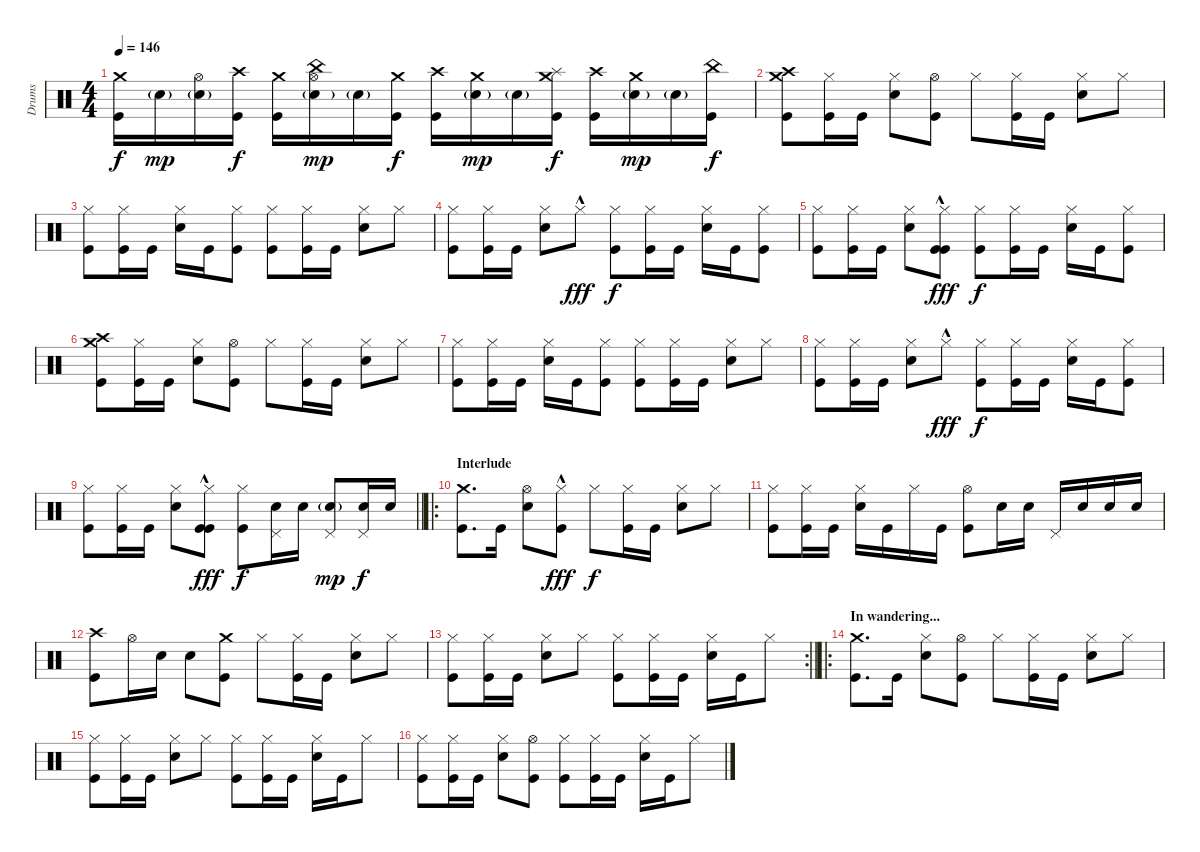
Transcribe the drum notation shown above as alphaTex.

\track ("Drums" "Drums") {instrument percussion}
\staff {score}
\articulation defaults
\ts (4 4)
\tempo 146
\clef neutral
\ks c
("Crash medium (hit)" "Kick (hit)").16{dy f} "Electric Snare (hit)"{g}.16{dy mp} ("Hi-Hat (open)" "Electric Snare (hit)"{g}).16 ("Crash high (hit)" "Kick (hit)").16{dy f} ("Crash medium (hit)" "Kick (hit)").16 ("China (hit)" "Hi-Hat (open)" "Electric Snare (hit)"{g}).16{dy mp} "Electric Snare (hit)"{g}.16 ("Crash medium (hit)" "Kick (hit)").16{dy f} ("Crash high (hit)" "Kick (hit)").16 ("Crash medium (hit)" "Electric Snare (hit)"{g}).16{dy mp} "Electric Snare (hit)"{g}.16 ("Crash medium (hit)" "Splash (hit)" "Kick (hit)").16{dy f} ("Crash high (hit)" "Kick (hit)").16 ("Crash medium (hit)" "Electric Snare (hit)"{g}).16{dy mp} "Electric Snare (hit)"{g}.16 ("China (hit)" "Kick (hit)").16{dy f} |
("Crash medium (hit)" "Crash high (hit)" "Kick (hit)").8 ("Hi-Hat (closed)" "Kick (hit)").16 "Kick (hit)".16 ("Hi-Hat (closed)" "Electric Snare (hit)").8 ("Hi-Hat (open)" "Kick (hit)").8 "Hi-Hat (closed)".8 ("Hi-Hat (closed)" "Kick (hit)").16 "Kick (hit)".16 ("Hi-Hat (closed)" "Electric Snare (hit)").8 "Hi-Hat (closed)".8 |
("Hi-Hat (closed)" "Kick (hit)").8 ("Hi-Hat (closed)" "Kick (hit)").16 "Kick (hit)".16 ("Hi-Hat (closed)" "Electric Snare (hit)").16 "Kick (hit)".16 ("Hi-Hat (closed)" "Kick (hit)").8 ("Hi-Hat (closed)" "Kick (hit)").8 ("Hi-Hat (closed)" "Kick (hit)").16 "Kick (hit)".16 ("Hi-Hat (closed)" "Electric Snare (hit)").8 "Hi-Hat (closed)".8 |
("Hi-Hat (closed)" "Kick (hit)").8 ("Hi-Hat (closed)" "Kick (hit)").16 "Kick (hit)".16 ("Hi-Hat (closed)" "Electric Snare (hit)").8 "Hi-Hat (closed)"{hac}.8{dy fff} ("Hi-Hat (closed)" "Kick (hit)").8{dy f} ("Hi-Hat (closed)" "Kick (hit)").16 "Kick (hit)".16 ("Hi-Hat (closed)" "Electric Snare (hit)").16 "Kick (hit)".16 ("Hi-Hat (closed)" "Kick (hit)").8 |
("Hi-Hat (closed)" "Kick (hit)").8 ("Hi-Hat (closed)" "Kick (hit)").16 "Kick (hit)".16 ("Hi-Hat (closed)" "Electric Snare (hit)").8 ("Hi-Hat (closed)"{hac} "Kick (hit)"{hac} "Kick (hit)"{hac}).8{dy fff} ("Hi-Hat (closed)" "Kick (hit)").8{dy f} ("Hi-Hat (closed)" "Kick (hit)").16 "Kick (hit)".16 ("Hi-Hat (closed)" "Electric Snare (hit)").16 "Kick (hit)".16 ("Hi-Hat (closed)" "Kick (hit)").8 |
("Crash medium (hit)" "Crash high (hit)" "Kick (hit)").8 ("Hi-Hat (closed)" "Kick (hit)").16 "Kick (hit)".16 ("Hi-Hat (closed)" "Electric Snare (hit)").8 ("Hi-Hat (open)" "Kick (hit)").8 "Hi-Hat (closed)".8 ("Hi-Hat (closed)" "Kick (hit)").16 "Kick (hit)".16 ("Hi-Hat (closed)" "Electric Snare (hit)").8 "Hi-Hat (closed)".8 |
("Hi-Hat (closed)" "Kick (hit)").8 ("Hi-Hat (closed)" "Kick (hit)").16 "Kick (hit)".16 ("Hi-Hat (closed)" "Electric Snare (hit)").16 "Kick (hit)".16 ("Hi-Hat (closed)" "Kick (hit)").8 ("Hi-Hat (closed)" "Kick (hit)").8 ("Hi-Hat (closed)" "Kick (hit)").16 "Kick (hit)".16 ("Hi-Hat (closed)" "Electric Snare (hit)").8 "Hi-Hat (closed)".8 |
("Hi-Hat (closed)" "Kick (hit)").8 ("Hi-Hat (closed)" "Kick (hit)").16 "Kick (hit)".16 ("Hi-Hat (closed)" "Electric Snare (hit)").8 "Hi-Hat (closed)"{hac}.8{dy fff} ("Hi-Hat (closed)" "Kick (hit)").8{dy f} ("Hi-Hat (closed)" "Kick (hit)").16 "Kick (hit)".16 ("Hi-Hat (closed)" "Electric Snare (hit)").16 "Kick (hit)".16 ("Hi-Hat (closed)" "Kick (hit)").8 |
\barLineRight lightlight
("Hi-Hat (closed)" "Kick (hit)").8 ("Hi-Hat (closed)" "Kick (hit)").16 "Kick (hit)".16 ("Hi-Hat (closed)" "Electric Snare (hit)").8 ("Hi-Hat (closed)"{hac} "Kick (hit)"{hac} "Kick (hit)"{hac}).8{dy fff} ("Hi-Hat (closed)" "Kick (hit)").8{dy f} ("Pedal Hi-Hat (hit)" "Electric Snare (hit)").16 "Electric Snare (hit)".16 ("Pedal Hi-Hat (hit)" "Electric Snare (hit)"{g}).8{dy mp} ("Pedal Hi-Hat (hit)" "Electric Snare (hit)").16{dy f} "Electric Snare (hit)".16 |
\ro
\section ("" "Interlude")
("Crash medium (hit)" "Kick (hit)").8{d} "Kick (hit)".16 ("Hi-Hat (open)" "Electric Snare (hit)").8 ("Hi-Hat (closed)"{hac} "Kick (hit)"{hac}).8{dy fff} "Hi-Hat (closed)".8{dy f} ("Hi-Hat (closed)" "Kick (hit)").16 "Kick (hit)".16 ("Hi-Hat (closed)" "Electric Snare (hit)").8 "Hi-Hat (closed)".8 |
("Hi-Hat (closed)" "Kick (hit)").8 ("Hi-Hat (closed)" "Kick (hit)").16 "Kick (hit)".16 ("Hi-Hat (closed)" "Electric Snare (hit)").16 "Kick (hit)".16 "Hi-Hat (closed)".16 "Kick (hit)".16 ("Hi-Hat (open)" "Kick (hit)").8 "Electric Snare (hit)".16 "Electric Snare (hit)".16 "Pedal Hi-Hat (hit)".16 "Electric Snare (hit)".16 "Electric Snare (hit)".16 "Electric Snare (hit)".16 |
("Crash high (hit)" "Kick (hit)").8 "Hi-Hat (open)".16 "Electric Snare (hit)".16 "Electric Snare (hit)".8 ("Crash medium (hit)" "Kick (hit)").8 "Hi-Hat (closed)".8 ("Hi-Hat (closed)" "Kick (hit)").16 "Kick (hit)".16 ("Hi-Hat (closed)" "Electric Snare (hit)").8 "Hi-Hat (closed)".8 |
\rc 2
\barLineRight lightlight
("Hi-Hat (closed)" "Kick (hit)").8 ("Hi-Hat (closed)" "Kick (hit)").16 "Kick (hit)".16 ("Hi-Hat (closed)" "Electric Snare (hit)").8 "Hi-Hat (closed)".8 ("Hi-Hat (closed)" "Kick (hit)").8 ("Hi-Hat (closed)" "Kick (hit)").16 "Kick (hit)".16 ("Hi-Hat (closed)" "Electric Snare (hit)").16 "Kick (hit)".16 "Hi-Hat (closed)".8 |
\ro
\section ("" "In wandering...")
("Crash medium (hit)" "Kick (hit)").8{d} "Kick (hit)".16 ("Hi-Hat (closed)" "Electric Snare (hit)").8 ("Hi-Hat (open)" "Kick (hit)").8 "Hi-Hat (closed)".8 ("Hi-Hat (closed)" "Kick (hit)").16 "Kick (hit)".16 ("Hi-Hat (closed)" "Electric Snare (hit)").8 "Hi-Hat (closed)".8 |
("Hi-Hat (closed)" "Kick (hit)").8 ("Hi-Hat (closed)" "Kick (hit)").16 "Kick (hit)".16 ("Hi-Hat (closed)" "Electric Snare (hit)").8 "Hi-Hat (closed)".8 ("Hi-Hat (closed)" "Kick (hit)").8 ("Hi-Hat (closed)" "Kick (hit)").16 "Kick (hit)".16 ("Hi-Hat (closed)" "Electric Snare (hit)").16 "Kick (hit)".16 "Hi-Hat (closed)".8 |
("Hi-Hat (closed)" "Kick (hit)").8 ("Hi-Hat (closed)" "Kick (hit)").16 "Kick (hit)".16 ("Hi-Hat (closed)" "Electric Snare (hit)").8 ("Hi-Hat (open)" "Kick (hit)").8 ("Hi-Hat (closed)" "Kick (hit)").8 ("Hi-Hat (closed)" "Kick (hit)").16 "Kick (hit)".16 ("Hi-Hat (closed)" "Electric Snare (hit)").16 "Kick (hit)".16 "Hi-Hat (closed)".8
